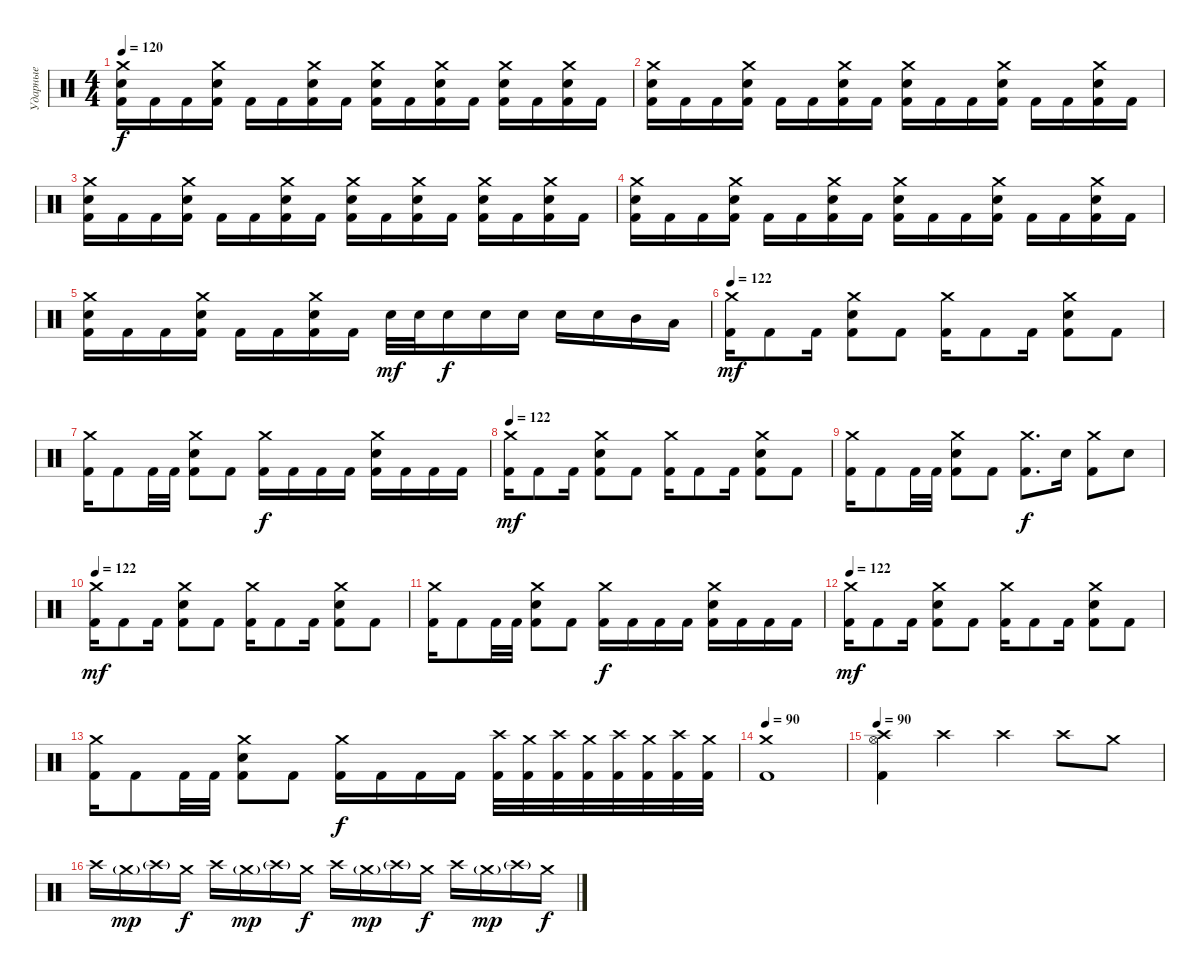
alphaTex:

\track ("Ударные" "Ударные") {instrument percussion}
\staff {score}
\articulation defaults
\ts (4 4)
\tempo 120
\clef neutral
\ks c
("Crash medium (hit)" "Electric Snare (hit)" "Kick (hit) 2").16{dy f} "Kick (hit) 2".16 "Kick (hit) 2".16 ("Crash medium (hit)" "Electric Snare (hit)" "Kick (hit) 2").16 "Kick (hit) 2".16 "Kick (hit) 2".16 ("Crash medium (hit)" "Electric Snare (hit)" "Kick (hit) 2").16 "Kick (hit) 2".16 ("Crash medium (hit)" "Electric Snare (hit)" "Kick (hit) 2").16 "Kick (hit) 2".16 ("Crash medium (hit)" "Electric Snare (hit)" "Kick (hit) 2").16 "Kick (hit) 2".16 ("Crash medium (hit)" "Electric Snare (hit)" "Kick (hit) 2").16 "Kick (hit) 2".16 ("Crash medium (hit)" "Electric Snare (hit)" "Kick (hit) 2").16 "Kick (hit) 2".16 |
("Crash medium (hit)" "Electric Snare (hit)" "Kick (hit) 2").16 "Kick (hit) 2".16 "Kick (hit) 2".16 ("Crash medium (hit)" "Electric Snare (hit)" "Kick (hit) 2").16 "Kick (hit) 2".16 "Kick (hit) 2".16 ("Crash medium (hit)" "Electric Snare (hit)" "Kick (hit) 2").16 "Kick (hit) 2".16 ("Crash medium (hit)" "Electric Snare (hit)" "Kick (hit) 2").16 "Kick (hit) 2".16 "Kick (hit) 2".16 ("Crash medium (hit)" "Electric Snare (hit)" "Kick (hit) 2").16 "Kick (hit) 2".16 "Kick (hit) 2".16 ("Crash medium (hit)" "Electric Snare (hit)" "Kick (hit) 2").16 "Kick (hit) 2".16 |
("Crash medium (hit)" "Electric Snare (hit)" "Kick (hit) 2").16 "Kick (hit) 2".16 "Kick (hit) 2".16 ("Crash medium (hit)" "Electric Snare (hit)" "Kick (hit) 2").16 "Kick (hit) 2".16 "Kick (hit) 2".16 ("Crash medium (hit)" "Electric Snare (hit)" "Kick (hit) 2").16 "Kick (hit) 2".16 ("Crash medium (hit)" "Electric Snare (hit)" "Kick (hit) 2").16 "Kick (hit) 2".16 ("Crash medium (hit)" "Electric Snare (hit)" "Kick (hit) 2").16 "Kick (hit) 2".16 ("Crash medium (hit)" "Electric Snare (hit)" "Kick (hit) 2").16 "Kick (hit) 2".16 ("Crash medium (hit)" "Electric Snare (hit)" "Kick (hit) 2").16 "Kick (hit) 2".16 |
("Crash medium (hit)" "Electric Snare (hit)" "Kick (hit) 2").16 "Kick (hit) 2".16 "Kick (hit) 2".16 ("Crash medium (hit)" "Electric Snare (hit)" "Kick (hit) 2").16 "Kick (hit) 2".16 "Kick (hit) 2".16 ("Crash medium (hit)" "Electric Snare (hit)" "Kick (hit) 2").16 "Kick (hit) 2".16 ("Crash medium (hit)" "Electric Snare (hit)" "Kick (hit) 2").16 "Kick (hit) 2".16 "Kick (hit) 2".16 ("Crash medium (hit)" "Electric Snare (hit)" "Kick (hit) 2").16 "Kick (hit) 2".16 "Kick (hit) 2".16 ("Crash medium (hit)" "Electric Snare (hit)" "Kick (hit) 2").16 "Kick (hit) 2".16 |
("Crash medium (hit)" "Electric Snare (hit)" "Kick (hit) 2").16 "Kick (hit) 2".16 "Kick (hit) 2".16 ("Crash medium (hit)" "Electric Snare (hit)" "Kick (hit) 2").16 "Kick (hit) 2".16 "Kick (hit) 2".16 ("Crash medium (hit)" "Electric Snare (hit)" "Kick (hit) 2").16 "Kick (hit) 2".16 "Electric Snare (hit)".32{dy mf} "Electric Snare (hit)".32 "Electric Snare (hit)".16{dy f} "Electric Snare (hit)".16 "Electric Snare (hit)".16 "Electric Snare (hit)".16 "Electric Snare (hit)".16 "Mid Tom (hit)".16 "Low Tom (hit)".16 |
\tempo 122
("Crash medium (hit)" "Kick (hit) 2").16{dy mf} "Kick (hit) 2".8 "Kick (hit) 2".16 ("Crash medium (hit)" "Electric Snare (hit)" "Kick (hit) 2").8 "Kick (hit) 2".8 ("Crash medium (hit)" "Kick (hit) 2").16 "Kick (hit) 2".8 "Kick (hit) 2".16 ("Crash medium (hit)" "Electric Snare (hit)" "Kick (hit) 2").8 "Kick (hit) 2".8 |
("Crash medium (hit)" "Kick (hit) 2").16 "Kick (hit) 2".8 "Kick (hit) 2".32 "Kick (hit) 2".32 ("Crash medium (hit)" "Electric Snare (hit)" "Kick (hit) 2").8 "Kick (hit) 2".8 ("Crash medium (hit)" "Kick (hit) 2").16{dy f} "Kick (hit) 2".16 "Kick (hit) 2".16 "Kick (hit) 2".16 ("Crash medium (hit)" "Electric Snare (hit)" "Kick (hit) 2").16 "Kick (hit) 2".16 "Kick (hit) 2".16 "Kick (hit) 2".16 |
\tempo 122
("Crash medium (hit)" "Kick (hit) 2").16{dy mf} "Kick (hit) 2".8 "Kick (hit) 2".16 ("Crash medium (hit)" "Electric Snare (hit)" "Kick (hit) 2").8 "Kick (hit) 2".8 ("Crash medium (hit)" "Kick (hit) 2").16 "Kick (hit) 2".8 "Kick (hit) 2".16 ("Crash medium (hit)" "Electric Snare (hit)" "Kick (hit) 2").8 "Kick (hit) 2".8 |
("Crash medium (hit)" "Kick (hit) 2").16 "Kick (hit) 2".8 "Kick (hit) 2".32 "Kick (hit) 2".32 ("Crash medium (hit)" "Electric Snare (hit)" "Kick (hit) 2").8 "Kick (hit) 2".8 ("Crash medium (hit)" "Kick (hit) 2").8{d dy f} "Electric Snare (hit)".16 ("Crash medium (hit)" "Kick (hit) 2").8 "Electric Snare (hit)".8 |
\tempo 122
("Crash medium (hit)" "Kick (hit) 2").16{dy mf} "Kick (hit) 2".8 "Kick (hit) 2".16 ("Crash medium (hit)" "Electric Snare (hit)" "Kick (hit) 2").8 "Kick (hit) 2".8 ("Crash medium (hit)" "Kick (hit) 2").16 "Kick (hit) 2".8 "Kick (hit) 2".16 ("Crash medium (hit)" "Electric Snare (hit)" "Kick (hit) 2").8 "Kick (hit) 2".8 |
("Crash medium (hit)" "Kick (hit) 2").16 "Kick (hit) 2".8 "Kick (hit) 2".32 "Kick (hit) 2".32 ("Crash medium (hit)" "Electric Snare (hit)" "Kick (hit) 2").8 "Kick (hit) 2".8 ("Crash medium (hit)" "Kick (hit) 2").16{dy f} "Kick (hit) 2".16 "Kick (hit) 2".16 "Kick (hit) 2".16 ("Crash medium (hit)" "Electric Snare (hit)" "Kick (hit) 2").16 "Kick (hit) 2".16 "Kick (hit) 2".16 "Kick (hit) 2".16 |
\tempo 122
("Crash medium (hit)" "Kick (hit) 2").16{dy mf} "Kick (hit) 2".8 "Kick (hit) 2".16 ("Crash medium (hit)" "Electric Snare (hit)" "Kick (hit) 2").8 "Kick (hit) 2".8 ("Crash medium (hit)" "Kick (hit) 2").16 "Kick (hit) 2".8 "Kick (hit) 2".16 ("Crash medium (hit)" "Electric Snare (hit)" "Kick (hit) 2").8 "Kick (hit) 2".8 |
("Crash medium (hit)" "Kick (hit) 2").16 "Kick (hit) 2".8 "Kick (hit) 2".32 "Kick (hit) 2".32 ("Crash medium (hit)" "Electric Snare (hit)" "Kick (hit) 2").8 "Kick (hit) 2".8 ("Crash medium (hit)" "Kick (hit) 2").16{dy f} "Kick (hit) 2".16 "Kick (hit) 2".16 "Kick (hit) 2".16 ("Crash high (hit)" "Kick (hit) 2").32 ("Crash medium (hit)" "Kick (hit) 2").32 ("Crash high (hit)" "Kick (hit) 2").32 ("Crash medium (hit)" "Kick (hit) 2").32 ("Crash high (hit)" "Kick (hit) 2").32 ("Crash medium (hit)" "Kick (hit) 2").32 ("Crash high (hit)" "Kick (hit) 2").32 ("Crash medium (hit)" "Kick (hit) 2").32 |
\tempo 90
("Crash medium (hit)" "Kick (hit) 2").1 |
\tempo 90
("Crash high (hit)" "Hi-Hat (open)" "Kick (hit) 2").4 "Crash high (hit)".4 "Crash high (hit)".4 "Crash high (hit)".8 "Crash medium (hit)".8 |
"Crash high (hit)".16 "Crash medium (hit)"{g}.16{dy mp} "Crash high (hit)"{g}.16 "Crash medium (hit)".16{dy f} "Crash high (hit)".16 "Crash medium (hit)"{g}.16{dy mp} "Crash high (hit)"{g}.16 "Crash medium (hit)".16{dy f} "Crash high (hit)".16 "Crash medium (hit)"{g}.16{dy mp} "Crash high (hit)"{g}.16 "Crash medium (hit)".16{dy f} "Crash high (hit)".16 "Crash medium (hit)"{g}.16{dy mp} "Crash high (hit)"{g}.16 "Crash medium (hit)".16{dy f}
